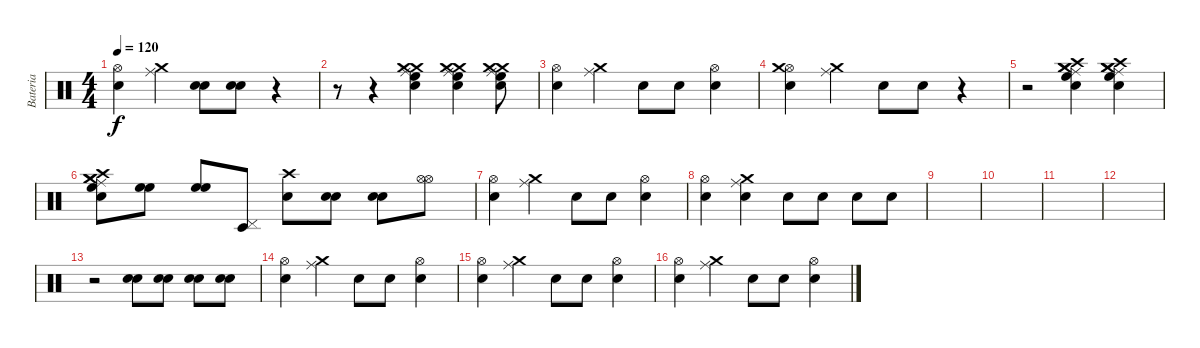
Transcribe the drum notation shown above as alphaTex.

\track ("Bateria" "Bateria") {instrument percussion}
\staff {score}
\articulation defaults
\ts (4 4)
\tempo 120
\clef neutral
\ks c
("Electric Snare (hit)" "Hi-Hat (open)").4{dy f} ("Ride (middle)" "Crash medium (hit)").4 ("Electric Snare (hit)" "Electric Snare (hit)").8 ("Electric Snare (hit)" "Electric Snare (hit)").8 r.4 |
r.8 r.4 ("High Floor Tom (hit)" "Electric Snare (hit)" "Crash medium (hit)" "Crash medium (hit)" "Ride (middle)").4 ("High Floor Tom (hit)" "Electric Snare (hit)" "Crash medium (hit)" "Crash medium (hit)" "Ride (middle)").4 ("High Floor Tom (hit)" "Electric Snare (hit)" "Crash medium (hit)" "Crash medium (hit)" "Ride (middle)").8 |
("Electric Snare (hit)" "Hi-Hat (open)").4 ("Ride (middle)" "Crash medium (hit)").4 "Electric Snare (hit)".8 "Electric Snare (hit)".8 ("Electric Snare (hit)" "Hi-Hat (open)").4 |
("Electric Snare (hit)" "Hi-Hat (open)" "Crash medium (hit)").4 ("Ride (middle)" "Crash medium (hit)").4 "Electric Snare (hit)".8 "Electric Snare (hit)".8 r.4 |
r.2 ("Crash high (hit)" "High Floor Tom (hit)" "Electric Snare (hit)" "Ride (middle)" "Crash medium (hit)" "Crash medium (hit)").4 ("Crash high (hit)" "High Floor Tom (hit)" "Electric Snare (hit)" "Ride (middle)" "Crash medium (hit)" "Crash medium (hit)").4 |
("Crash high (hit)" "High Floor Tom (hit)" "Electric Snare (hit)" "Ride (middle)" "Crash medium (hit)" "Crash medium (hit)").8 ("High Floor Tom (hit)" "High Floor Tom (hit)").8 ("High Floor Tom (hit)" "High Floor Tom (hit)").8 ("Timbale low (hit)" "Pedal Hi-Hat (hit)").8 ("Crash high (hit)" "Electric Snare (hit)").8 ("Electric Snare (hit)" "Electric Snare (hit)").8 ("Electric Snare (hit)" "Electric Snare (hit)").8 ("Hi-Hat (open)" "Hi-Hat (open)").8 |
("Electric Snare (hit)" "Hi-Hat (open)").4 ("Ride (middle)" "Crash medium (hit)").4 "Electric Snare (hit)".8 "Electric Snare (hit)".8 ("Electric Snare (hit)" "Hi-Hat (open)").4 |
("Electric Snare (hit)" "Hi-Hat (open)").4 ("Electric Snare (hit)" "Ride (middle)" "Crash medium (hit)").4 "Electric Snare (hit)".8 "Electric Snare (hit)".8 "Electric Snare (hit)".8 "Electric Snare (hit)".8 |
|
|
|
|
r.2 ("Electric Snare (hit)" "Electric Snare (hit)").8 ("Electric Snare (hit)" "Electric Snare (hit)").8 ("Electric Snare (hit)" "Electric Snare (hit)").8 ("Electric Snare (hit)" "Electric Snare (hit)").8 |
("Electric Snare (hit)" "Hi-Hat (open)").4 ("Ride (middle)" "Crash medium (hit)").4 "Electric Snare (hit)".8 "Electric Snare (hit)".8 ("Electric Snare (hit)" "Hi-Hat (open)").4 |
("Electric Snare (hit)" "Hi-Hat (open)").4 ("Ride (middle)" "Crash medium (hit)").4 "Electric Snare (hit)".8 "Electric Snare (hit)".8 ("Electric Snare (hit)" "Hi-Hat (open)").4 |
("Electric Snare (hit)" "Hi-Hat (open)").4 ("Ride (middle)" "Crash medium (hit)").4 "Electric Snare (hit)".8 "Electric Snare (hit)".8 ("Electric Snare (hit)" "Hi-Hat (open)").4
